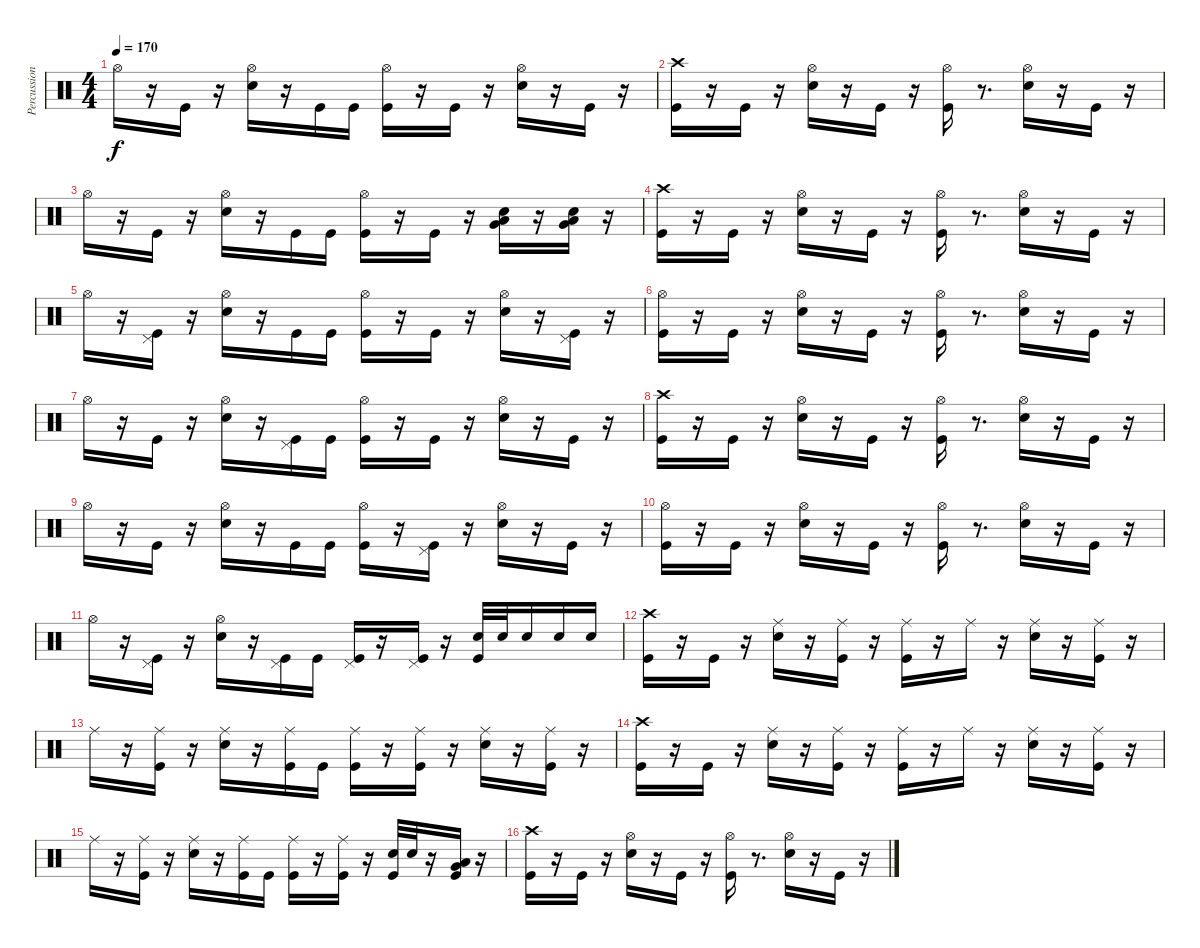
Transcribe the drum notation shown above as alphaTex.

\track ("Percussion" "Percussion") {instrument percussion}
\staff {score}
\articulation defaults
\ts (4 4)
\tempo 170
\clef neutral
\ks c "Hi-Hat (open)".16{dy f}
r.16 "Kick (hit)".16 r.16 ("Hi-Hat (open)" "Electric Snare (hit)").16 r.16 "Kick (hit)".16 "Kick (hit)".16 ("Hi-Hat (open)" "Kick (hit)").16 r.16 "Kick (hit)".16 r.16 ("Hi-Hat (open)" "Electric Snare (hit)").16 r.16 "Kick (hit)".16 r.16 |
("Crash high (hit)" "Kick (hit)").16 r.16 "Kick (hit)".16 r.16 ("Hi-Hat (open)" "Electric Snare (hit)").16 r.16 "Kick (hit)".16 r.16 ("Hi-Hat (open)" "Kick (hit)").16 r.8{d} ("Hi-Hat (open)" "Electric Snare (hit)").16 r.16 "Kick (hit)".16 r.16 |
"Hi-Hat (open)".16 r.16 "Kick (hit)".16 r.16 ("Hi-Hat (open)" "Electric Snare (hit)").16 r.16 "Kick (hit)".16 "Kick (hit)".16 ("Hi-Hat (open)" "Kick (hit)").16 r.16 "Kick (hit)".16 r.16 ("Very Low Tom (hit)" "Low Floor Tom (hit)" "Electric Snare (hit)").16 r.16 ("Very Low Tom (hit)" "Low Floor Tom (hit)" "Electric Snare (hit)").16 r.16 |
("Crash high (hit)" "Kick (hit)").16 r.16 "Kick (hit)".16 r.16 ("Hi-Hat (open)" "Electric Snare (hit)").16 r.16 "Kick (hit)".16 r.16 ("Hi-Hat (open)" "Kick (hit)").16 r.8{d} ("Hi-Hat (open)" "Electric Snare (hit)").16 r.16 "Kick (hit)".16 r.16 |
"Hi-Hat (open)".16 r.16 ("Pedal Hi-Hat (hit)" "Kick (hit)").16 r.16 ("Hi-Hat (open)" "Electric Snare (hit)").16 r.16 "Kick (hit)".16 "Kick (hit)".16 ("Hi-Hat (open)" "Kick (hit)").16 r.16 "Kick (hit)".16 r.16 ("Hi-Hat (open)" "Electric Snare (hit)").16 r.16 ("Pedal Hi-Hat (hit)" "Kick (hit)").16 r.16 |
("Hi-Hat (open)" "Kick (hit)").16 r.16 "Kick (hit)".16 r.16 ("Hi-Hat (open)" "Electric Snare (hit)").16 r.16 "Kick (hit)".16 r.16 ("Hi-Hat (open)" "Kick (hit)").16 r.8{d} ("Hi-Hat (open)" "Electric Snare (hit)").16 r.16 "Kick (hit)".16 r.16 |
"Hi-Hat (open)".16 r.16 "Kick (hit)".16 r.16 ("Hi-Hat (open)" "Electric Snare (hit)").16 r.16 ("Pedal Hi-Hat (hit)" "Kick (hit)").16 "Kick (hit)".16 ("Hi-Hat (open)" "Kick (hit)").16 r.16 "Kick (hit)".16 r.16 ("Hi-Hat (open)" "Electric Snare (hit)").16 r.16 "Kick (hit)".16 r.16 |
("Crash high (hit)" "Kick (hit)").16 r.16 "Kick (hit)".16 r.16 ("Hi-Hat (open)" "Electric Snare (hit)").16 r.16 "Kick (hit)".16 r.16 ("Hi-Hat (open)" "Kick (hit)").16 r.8{d} ("Hi-Hat (open)" "Electric Snare (hit)").16 r.16 "Kick (hit)".16 r.16 |
"Hi-Hat (open)".16 r.16 "Kick (hit)".16 r.16 ("Hi-Hat (open)" "Electric Snare (hit)").16 r.16 "Kick (hit)".16 "Kick (hit)".16 ("Hi-Hat (open)" "Kick (hit)").16 r.16 ("Pedal Hi-Hat (hit)" "Kick (hit)").16 r.16 ("Hi-Hat (open)" "Electric Snare (hit)").16 r.16 "Kick (hit)".16 r.16 |
("Hi-Hat (open)" "Kick (hit)").16 r.16 "Kick (hit)".16 r.16 ("Hi-Hat (open)" "Electric Snare (hit)").16 r.16 "Kick (hit)".16 r.16 ("Hi-Hat (open)" "Kick (hit)").16 r.8{d} ("Hi-Hat (open)" "Electric Snare (hit)").16 r.16 "Kick (hit)".16 r.16 |
"Hi-Hat (open)".16 r.16 ("Pedal Hi-Hat (hit)" "Kick (hit)").16 r.16 ("Hi-Hat (open)" "Electric Snare (hit)").16 r.16 ("Pedal Hi-Hat (hit)" "Kick (hit)").16 "Kick (hit)".16 ("Pedal Hi-Hat (hit)" "Kick (hit)").16 r.16 ("Pedal Hi-Hat (hit)" "Kick (hit)").16 r.16 ("Kick (hit)" "Electric Snare (hit)").32 "Electric Snare (hit)".32 "Electric Snare (hit)".16 "Electric Snare (hit)".16 "Electric Snare (hit)".16 |
("Crash high (hit)" "Kick (hit)").16 r.16 "Kick (hit)".16 r.16 ("Ride (middle)" "Electric Snare (hit)").16 r.16 ("Ride (middle)" "Kick (hit)").16 r.16 ("Ride (middle)" "Kick (hit)").16 r.16 "Ride (middle)".16 r.16 ("Ride (middle)" "Electric Snare (hit)").16 r.16 ("Ride (middle)" "Kick (hit)").16 r.16 |
"Ride (middle)".16 r.16 ("Ride (middle)" "Kick (hit)").16 r.16 ("Ride (middle)" "Electric Snare (hit)").16 r.16 ("Ride (middle)" "Kick (hit)").16 "Kick (hit)".16 ("Ride (middle)" "Kick (hit)").16 r.16 ("Ride (middle)" "Kick (hit)").16 r.16 ("Ride (middle)" "Electric Snare (hit)").16 r.16 ("Ride (middle)" "Kick (hit)").16 r.16 |
("Crash high (hit)" "Kick (hit)").16 r.16 "Kick (hit)".16 r.16 ("Ride (middle)" "Electric Snare (hit)").16 r.16 ("Ride (middle)" "Kick (hit)").16 r.16 ("Ride (middle)" "Kick (hit)").16 r.16 "Ride (middle)".16 r.16 ("Ride (middle)" "Electric Snare (hit)").16 r.16 ("Ride (middle)" "Kick (hit)").16 r.16 |
"Ride (middle)".16 r.16 ("Ride (middle)" "Kick (hit)").16 r.16 ("Ride (middle)" "Electric Snare (hit)").16 r.16 ("Ride (middle)" "Kick (hit)").16 "Kick (hit)".16 ("Ride (middle)" "Kick (hit)").16 r.16 ("Ride (middle)" "Kick (hit)").16 r.16 ("Kick (hit)" "Electric Snare (hit)").32 "Electric Snare (hit)".32 r.16 ("Kick (hit)" "Very Low Tom (hit)" "Low Floor Tom (hit)").16 r.16 |
("Crash high (hit)" "Kick (hit)").16 r.16 "Kick (hit)".16 r.16 ("Hi-Hat (open)" "Electric Snare (hit)").16 r.16 "Kick (hit)".16 r.16 ("Hi-Hat (open)" "Kick (hit)").16 r.8{d} ("Hi-Hat (open)" "Electric Snare (hit)").16 r.16 "Kick (hit)".16 r.16
